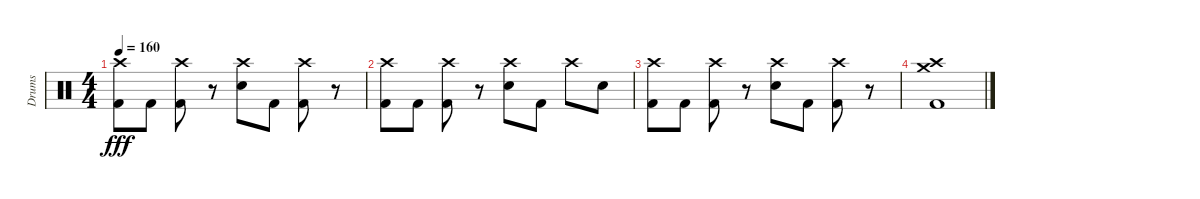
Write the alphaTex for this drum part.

\track ("Drums" "Drums") {instrument percussion}
\staff {score}
\articulation defaults
\ts (4 4)
\tempo 160
\clef neutral
\ks c
("Crash high (hit)" "Kick (hit) 2").8{dy fff} "Kick (hit) 2".8 ("Crash high (hit)" "Kick (hit) 2").8 r.8 ("Crash high (hit)" "Snare (hit) 2").8 "Kick (hit) 2".8 ("Crash high (hit)" "Kick (hit) 2").8 r.8 |
("Crash high (hit)" "Kick (hit) 2").8 "Kick (hit) 2".8 ("Crash high (hit)" "Kick (hit) 2").8 r.8 ("Crash high (hit)" "Snare (hit) 2").8 "Kick (hit) 2".8 "Crash high (hit)".8 "Snare (hit) 2".8 |
("Crash high (hit)" "Kick (hit) 2").8 "Kick (hit) 2".8 ("Crash high (hit)" "Kick (hit) 2").8 r.8 ("Crash high (hit)" "Snare (hit) 2").8 "Kick (hit) 2".8 ("Crash high (hit)" "Kick (hit) 2").8 r.8 |
("Crash medium (hit)" "Crash high (hit)" "Kick (hit) 2").1
